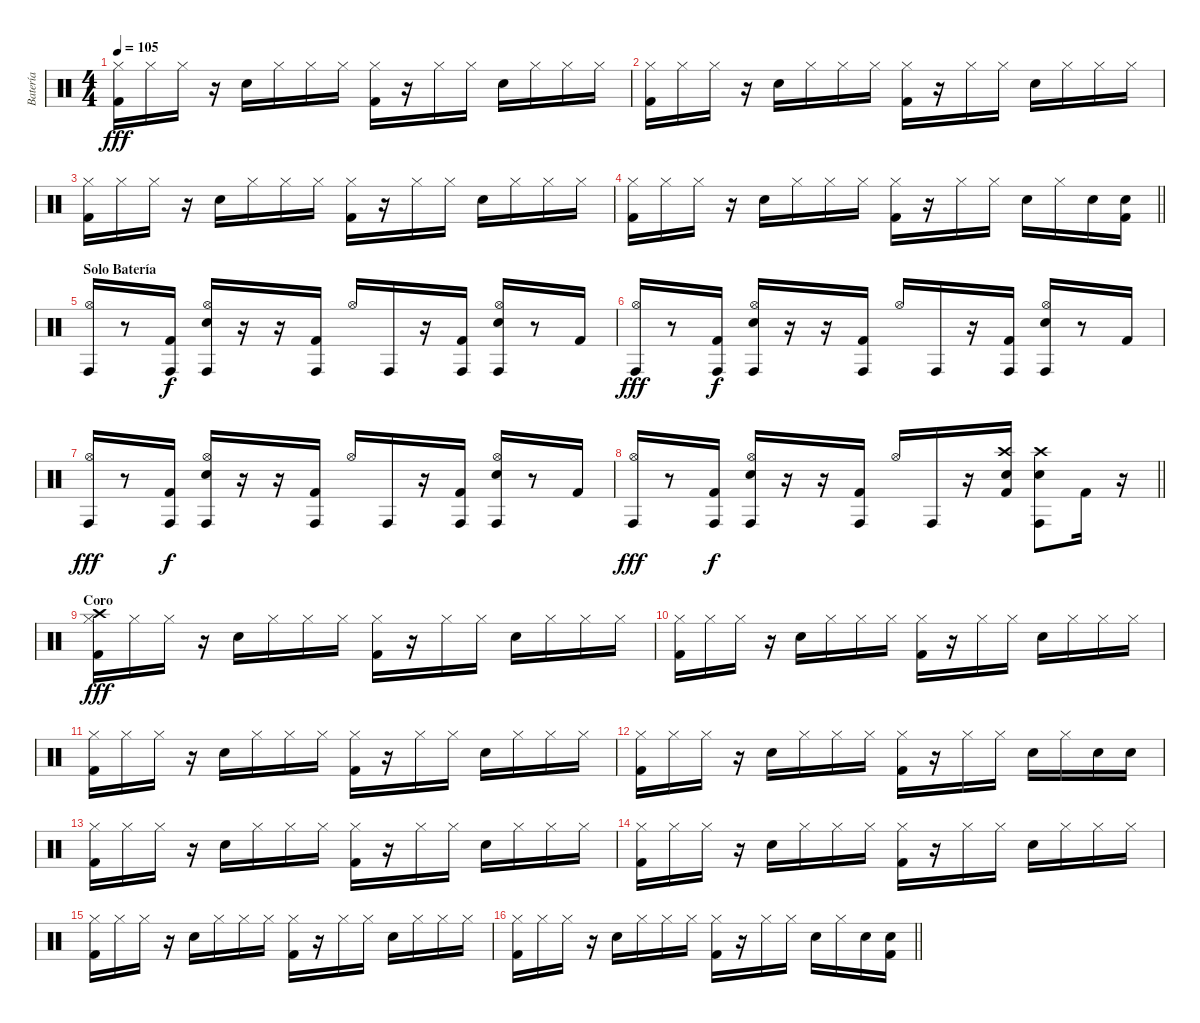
\track ("Batería" "Batería") {instrument percussion}
\staff {score}
\articulation defaults
\ts (4 4)
\tempo 105
\clef neutral
\ks c
("Hi-Hat (closed)" "Kick (hit) 2").16{dy fff} "Hi-Hat (closed)".16 "Hi-Hat (closed)".16 r.16 "Electric Snare (hit)".16 "Hi-Hat (closed)".16 "Hi-Hat (closed)".16 "Hi-Hat (closed)".16 ("Hi-Hat (closed)" "Kick (hit) 2").16 r.16 "Hi-Hat (closed)".16 "Hi-Hat (closed)".16 "Electric Snare (hit)".16 "Hi-Hat (closed)".16 "Hi-Hat (closed)".16 "Hi-Hat (closed)".16 |
("Hi-Hat (closed)" "Kick (hit) 2").16 "Hi-Hat (closed)".16 "Hi-Hat (closed)".16 r.16 "Electric Snare (hit)".16 "Hi-Hat (closed)".16 "Hi-Hat (closed)".16 "Hi-Hat (closed)".16 ("Hi-Hat (closed)" "Kick (hit) 2").16 r.16 "Hi-Hat (closed)".16 "Hi-Hat (closed)".16 "Electric Snare (hit)".16 "Hi-Hat (closed)".16 "Hi-Hat (closed)".16 "Hi-Hat (closed)".16 |
("Hi-Hat (closed)" "Kick (hit) 2").16 "Hi-Hat (closed)".16 "Hi-Hat (closed)".16 r.16 "Electric Snare (hit)".16 "Hi-Hat (closed)".16 "Hi-Hat (closed)".16 "Hi-Hat (closed)".16 ("Hi-Hat (closed)" "Kick (hit) 2").16 r.16 "Hi-Hat (closed)".16 "Hi-Hat (closed)".16 "Electric Snare (hit)".16 "Hi-Hat (closed)".16 "Hi-Hat (closed)".16 "Hi-Hat (closed)".16 |
\barLineRight lightlight
("Hi-Hat (closed)" "Kick (hit) 2").16 "Hi-Hat (closed)".16 "Hi-Hat (closed)".16 r.16 "Electric Snare (hit)".16 "Hi-Hat (closed)".16 "Hi-Hat (closed)".16 "Hi-Hat (closed)".16 ("Hi-Hat (closed)" "Kick (hit) 2").16 r.16 "Hi-Hat (closed)".16 "Hi-Hat (closed)".16 "Electric Snare (hit)".16 "Hi-Hat (closed)".16 "Electric Snare (hit)".16 ("Electric Snare (hit)" "Kick (hit) 2").16 |
\section ("" "Solo Batería")
("Hi-Hat (open)" "Conga high (hit)").16 r.8 ("Kick (hit) 2" "Conga high (hit)").16{dy f} ("Hi-Hat (open)" "Electric Snare (hit)" "Conga high (hit)").16 r.16 r.16 ("Kick (hit) 2" "Conga high (hit)").16 "Hi-Hat (open)".16 "Conga high (hit)".16 r.16 ("Kick (hit) 2" "Conga high (hit)").16 ("Hi-Hat (open)" "Electric Snare (hit)" "Conga high (hit)").16 r.8 "Kick (hit) 2".16 |
("Hi-Hat (open)" "Conga high (hit)").16{dy fff} r.8 ("Kick (hit) 2" "Conga high (hit)").16{dy f} ("Hi-Hat (open)" "Electric Snare (hit)" "Conga high (hit)").16 r.16 r.16 ("Kick (hit) 2" "Conga high (hit)").16 "Hi-Hat (open)".16 "Conga high (hit)".16 r.16 ("Kick (hit) 2" "Conga high (hit)").16 ("Hi-Hat (open)" "Electric Snare (hit)" "Conga high (hit)").16 r.8 "Kick (hit) 2".16 |
("Hi-Hat (open)" "Conga high (hit)").16{dy fff} r.8 ("Kick (hit) 2" "Conga high (hit)").16{dy f} ("Hi-Hat (open)" "Electric Snare (hit)" "Conga high (hit)").16 r.16 r.16 ("Kick (hit) 2" "Conga high (hit)").16 "Hi-Hat (open)".16 "Conga high (hit)".16 r.16 ("Kick (hit) 2" "Conga high (hit)").16 ("Hi-Hat (open)" "Electric Snare (hit)" "Conga high (hit)").16 r.8 "Kick (hit) 2".16 |
\barLineRight lightlight
("Hi-Hat (open)" "Conga high (hit)").16{dy fff} r.8 ("Kick (hit) 2" "Conga high (hit)").16{dy f} ("Hi-Hat (open)" "Electric Snare (hit)" "Conga high (hit)").16 r.16 r.16 ("Kick (hit) 2" "Conga high (hit)").16 "Hi-Hat (open)".16 "Conga high (hit)".16 r.16 ("Crash high (hit)" "Electric Snare (hit)" "Kick (hit) 2").16 ("Crash high (hit)" "Electric Snare (hit)" "Conga high (hit)").8 "Kick (hit) 2".16 r.16 |
\section ("" "Coro")
("Crash high (hit)" "Hi-Hat (closed)" "Kick (hit) 2").16{dy fff} "Hi-Hat (closed)".16 "Hi-Hat (closed)".16 r.16 "Electric Snare (hit)".16 "Hi-Hat (closed)".16 "Hi-Hat (closed)".16 "Hi-Hat (closed)".16 ("Hi-Hat (closed)" "Kick (hit) 2").16 r.16 "Hi-Hat (closed)".16 "Hi-Hat (closed)".16 "Electric Snare (hit)".16 "Hi-Hat (closed)".16 "Hi-Hat (closed)".16 "Hi-Hat (closed)".16 |
("Hi-Hat (closed)" "Kick (hit) 2").16 "Hi-Hat (closed)".16 "Hi-Hat (closed)".16 r.16 "Electric Snare (hit)".16 "Hi-Hat (closed)".16 "Hi-Hat (closed)".16 "Hi-Hat (closed)".16 ("Hi-Hat (closed)" "Kick (hit) 2").16 r.16 "Hi-Hat (closed)".16 "Hi-Hat (closed)".16 "Electric Snare (hit)".16 "Hi-Hat (closed)".16 "Hi-Hat (closed)".16 "Hi-Hat (closed)".16 |
("Hi-Hat (closed)" "Kick (hit) 2").16 "Hi-Hat (closed)".16 "Hi-Hat (closed)".16 r.16 "Electric Snare (hit)".16 "Hi-Hat (closed)".16 "Hi-Hat (closed)".16 "Hi-Hat (closed)".16 ("Hi-Hat (closed)" "Kick (hit) 2").16 r.16 "Hi-Hat (closed)".16 "Hi-Hat (closed)".16 "Electric Snare (hit)".16 "Hi-Hat (closed)".16 "Hi-Hat (closed)".16 "Hi-Hat (closed)".16 |
("Hi-Hat (closed)" "Kick (hit) 2").16 "Hi-Hat (closed)".16 "Hi-Hat (closed)".16 r.16 "Electric Snare (hit)".16 "Hi-Hat (closed)".16 "Hi-Hat (closed)".16 "Hi-Hat (closed)".16 ("Hi-Hat (closed)" "Kick (hit) 2").16 r.16 "Hi-Hat (closed)".16 "Hi-Hat (closed)".16 "Electric Snare (hit)".16 "Hi-Hat (closed)".16 "Electric Snare (hit)".16 "Electric Snare (hit)".16 |
("Hi-Hat (closed)" "Kick (hit) 2").16 "Hi-Hat (closed)".16 "Hi-Hat (closed)".16 r.16 "Electric Snare (hit)".16 "Hi-Hat (closed)".16 "Hi-Hat (closed)".16 "Hi-Hat (closed)".16 ("Hi-Hat (closed)" "Kick (hit) 2").16 r.16 "Hi-Hat (closed)".16 "Hi-Hat (closed)".16 "Electric Snare (hit)".16 "Hi-Hat (closed)".16 "Hi-Hat (closed)".16 "Hi-Hat (closed)".16 |
("Hi-Hat (closed)" "Kick (hit) 2").16 "Hi-Hat (closed)".16 "Hi-Hat (closed)".16 r.16 "Electric Snare (hit)".16 "Hi-Hat (closed)".16 "Hi-Hat (closed)".16 "Hi-Hat (closed)".16 ("Hi-Hat (closed)" "Kick (hit) 2").16 r.16 "Hi-Hat (closed)".16 "Hi-Hat (closed)".16 "Electric Snare (hit)".16 "Hi-Hat (closed)".16 "Hi-Hat (closed)".16 "Hi-Hat (closed)".16 |
("Hi-Hat (closed)" "Kick (hit) 2").16 "Hi-Hat (closed)".16 "Hi-Hat (closed)".16 r.16 "Electric Snare (hit)".16 "Hi-Hat (closed)".16 "Hi-Hat (closed)".16 "Hi-Hat (closed)".16 ("Hi-Hat (closed)" "Kick (hit) 2").16 r.16 "Hi-Hat (closed)".16 "Hi-Hat (closed)".16 "Electric Snare (hit)".16 "Hi-Hat (closed)".16 "Hi-Hat (closed)".16 "Hi-Hat (closed)".16 |
\barLineRight lightlight
("Hi-Hat (closed)" "Kick (hit) 2").16 "Hi-Hat (closed)".16 "Hi-Hat (closed)".16 r.16 "Electric Snare (hit)".16 "Hi-Hat (closed)".16 "Hi-Hat (closed)".16 "Hi-Hat (closed)".16 ("Hi-Hat (closed)" "Kick (hit) 2").16 r.16 "Hi-Hat (closed)".16 "Hi-Hat (closed)".16 "Electric Snare (hit)".16 "Hi-Hat (closed)".16 "Electric Snare (hit)".16 ("Electric Snare (hit)" "Kick (hit) 2").16
